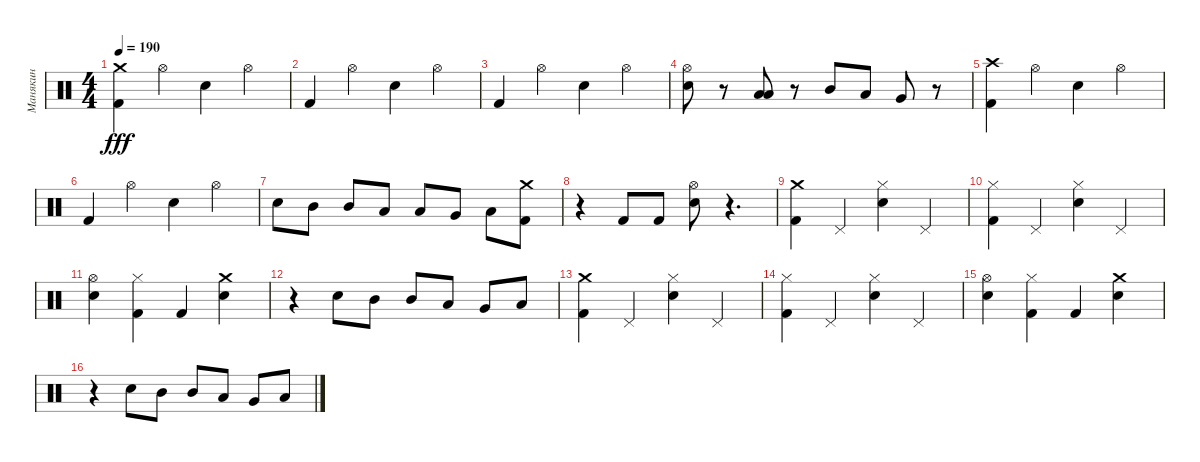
\track ("Манякин" "Манякин") {instrument percussion}
\staff {score}
\articulation defaults
\ts (4 4)
\tempo 190
\clef neutral
\ks c
("Kick (hit) 2" "Crash medium (hit)").4{dy fff} "Hi-Hat (open)".4 "Snare (hit) 2".4 "Hi-Hat (open)".4 |
"Kick (hit) 2".4 "Hi-Hat (open)".4 "Snare (hit) 2".4 "Hi-Hat (open)".4 |
"Kick (hit) 2".4 "Hi-Hat (open)".4 "Snare (hit) 2".4 "Hi-Hat (open)".4 |
("Hi-Hat (open)" "Snare (hit) 2").8 r.8 ("Low Tom (hit)" "Low Floor Tom (hit)").8 r.8 "Mid Tom (hit)".8 "Low Tom (hit)".8 "Very Low Tom (hit)".8 r.8 |
("Kick (hit) 2" "Crash high (hit)").4 "Hi-Hat (open)".4 "Snare (hit) 2".4 "Hi-Hat (open)".4 |
"Kick (hit) 2".4 "Hi-Hat (open)".4 "Snare (hit) 2".4 "Hi-Hat (open)".4 |
"Snare (hit) 2".8 "Mid Tom (hit)".8 "Mid Tom (hit)".8 "Low Tom (hit)".8 "Low Tom (hit)".8 "Very Low Tom (hit)".8 "Low Floor Tom (hit)".8 ("Crash medium (hit)" "Kick (hit) 2").8 |
r.4 "Kick (hit) 2".8 "Kick (hit) 2".8 ("Hi-Hat (open)" "Snare (hit) 2").8 r.4{d} |
("Kick (hit) 2" "Crash medium (hit)").4 "Pedal Hi-Hat (hit)".4 ("Hi-Hat (closed)" "Snare (hit) 2").4 "Pedal Hi-Hat (hit)".4 |
("Hi-Hat (closed)" "Kick (hit) 2").4 "Pedal Hi-Hat (hit)".4 ("Snare (hit) 2" "Hi-Hat (closed)").4 "Pedal Hi-Hat (hit)".4 |
("Hi-Hat (open)" "Snare (hit) 2").4 ("Hi-Hat (closed)" "Kick (hit) 2").4 "Kick (hit) 2".4 ("Snare (hit) 2" "Crash medium (hit)").4 |
r.4 "Snare (hit) 2".8 "Mid Tom (hit)".8 "Mid Tom (hit)".8 "Low Tom (hit)".8 "Very Low Tom (hit)".8 "Low Floor Tom (hit)".8 |
("Kick (hit) 2" "Crash medium (hit)").4 "Pedal Hi-Hat (hit)".4 ("Hi-Hat (closed)" "Snare (hit) 2").4 "Pedal Hi-Hat (hit)".4 |
("Hi-Hat (closed)" "Kick (hit) 2").4 "Pedal Hi-Hat (hit)".4 ("Snare (hit) 2" "Hi-Hat (closed)").4 "Pedal Hi-Hat (hit)".4 |
("Hi-Hat (open)" "Snare (hit) 2").4 ("Hi-Hat (closed)" "Kick (hit) 2").4 "Kick (hit) 2".4 ("Snare (hit) 2" "Crash medium (hit)").4 |
r.4 "Snare (hit) 2".8 "Mid Tom (hit)".8 "Mid Tom (hit)".8 "Low Tom (hit)".8 "Very Low Tom (hit)".8 "Low Floor Tom (hit)".8
